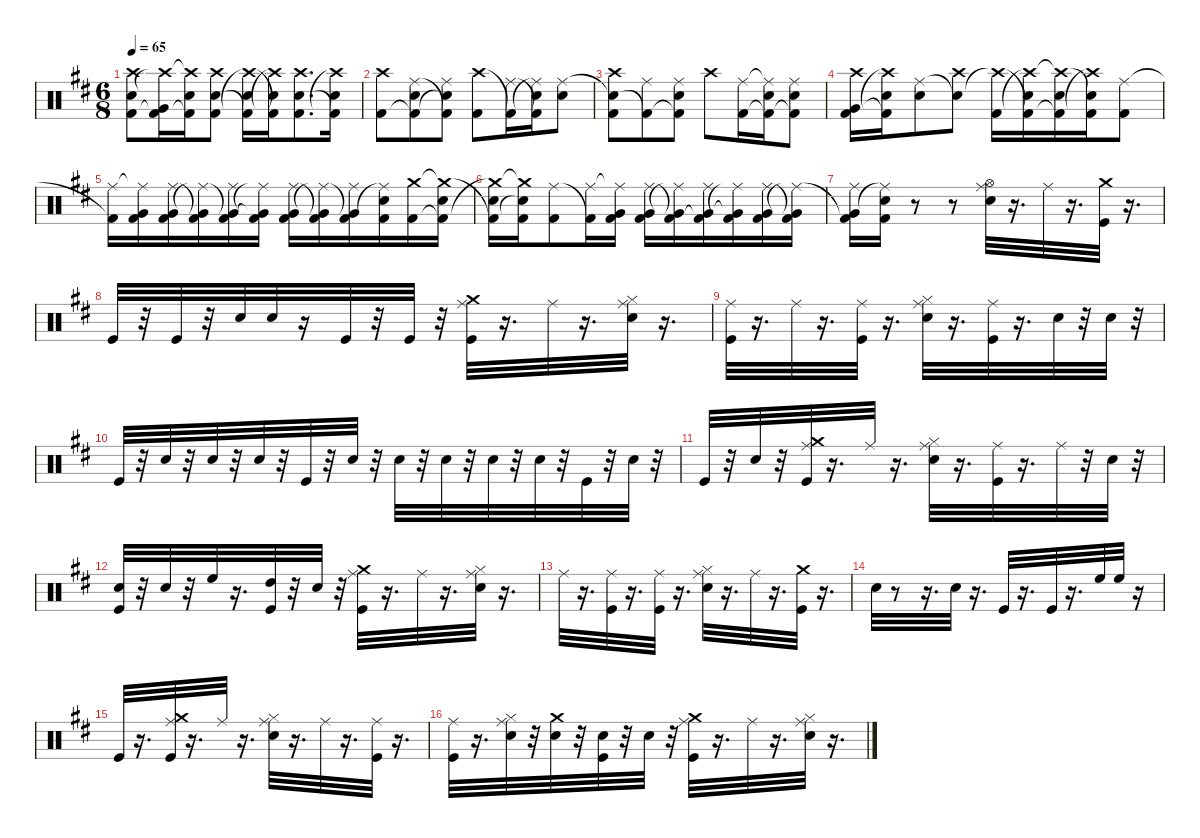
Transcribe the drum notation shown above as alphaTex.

\hideDynamics
\bracketExtendMode nobrackets
\singleTrackTrackNamePolicy hidden
\multiTrackTrackNamePolicy hidden
\firstSystemTrackNameMode fullname
\firstSystemTrackNameOrientation horizontal
\otherSystemsTrackNameOrientation horizontal
\track ("Drums" "drm.") {instrument percussion}
\staff {score}
\articulation defaults
\ts (6 8)
\tempo 65
\clef neutral
\ks bminor
("Snare (hit) 2"{acc forcenatural} "Kick (hit) 2"{acc forcenatural} "Crash high (hit)"{acc #}).8{dy ff beam Down} ("Crash high (hit)"{t acc #} "Kick (hit) 2"{t acc forcenatural} "Very Low Tom (hit)"{acc forcenatural}).16{beam Down} ("Crash high (hit)"{t acc #} "Kick (hit) 2"{t acc forcenatural} "Snare (hit) 2"{acc forcenatural}).16{beam Down} ("Snare (hit) 2"{acc forcenatural} "Kick (hit) 2"{acc forcenatural} "Crash high (hit)"{acc #}).8{beam Down} ("Kick (hit) 2"{t acc forcenatural} "Crash high (hit)"{t acc #} "Snare (hit) 2"{acc forcenatural}).16{beam Down} ("Crash high (hit)"{t acc #} "Kick (hit) 2"{t acc forcenatural} "Snare (hit) 2"{acc forcenatural}).16{beam Down} ("Snare (hit) 2"{acc forcenatural} "Kick (hit) 2"{acc forcenatural} "Crash high (hit)"{acc #}).8{d beam Down} ("Kick (hit) 2"{t acc forcenatural} "Crash high (hit)"{t acc #} "Snare (hit) 2"{acc forcenatural}).16{beam Down} |
("Crash high (hit)"{acc #} "Kick (hit) 2"{acc forcenatural}).8{beam Down} ("Ride (middle)"{acc #} "Kick (hit) 2"{t acc forcenatural} "Snare (hit) 2"{acc forcenatural}).8{beam Down} ("Kick (hit) 2"{t acc forcenatural} "Snare (hit) 2"{t acc forcenatural} "Ride (middle)"{acc #}).8{beam Down} ("Crash high (hit)"{acc #} "Kick (hit) 2"{acc forcenatural}).8{beam Down} ("Kick (hit) 2"{t acc forcenatural} "Ride (middle)"{acc #}).16{beam Down} ("Ride (middle)"{t acc #} "Kick (hit) 2"{t acc forcenatural} "Snare (hit) 2"{acc forcenatural}).16{beam Down} ("Ride (middle)"{acc #} "Snare (hit) 2"{acc forcenatural}).8{beam Down} |
("Snare (hit) 2"{t acc forcenatural} "Crash high (hit)"{acc #} "Kick (hit) 2"{acc forcenatural}).8{beam Down} ("Kick (hit) 2"{t acc forcenatural} "Ride (middle)"{acc #}).8{beam Down} ("Kick (hit) 2"{t acc forcenatural} "Snare (hit) 2"{acc forcenatural} "Ride (middle)"{acc #}).8{beam Down} "Crash high (hit)"{acc #}.8{beam Down} ("Ride (middle)"{acc #} "Kick (hit) 2"{acc forcenatural}).16{beam Down} ("Ride (middle)"{t acc #} "Kick (hit) 2"{t acc forcenatural} "Snare (hit) 2"{acc forcenatural}).16{beam Down} ("Snare (hit) 2"{acc forcenatural} "Kick (hit) 2"{t acc forcenatural} "Ride (middle)"{acc #}).8{beam Down} |
("Very Low Tom (hit)"{acc forcenatural} "Kick (hit) 2"{acc forcenatural} "Crash high (hit)"{acc #}).16{beam Down} ("Kick (hit) 2"{t acc forcenatural} "Crash high (hit)"{t acc #} "Snare (hit) 2"{acc forcenatural}).16{beam Down} ("Ride (middle)"{acc #} "Snare (hit) 2"{acc forcenatural}).8{beam Down} ("Snare (hit) 2"{t acc forcenatural} "Crash high (hit)"{acc #}).8{beam Down} ("Crash high (hit)"{t acc #} "Kick (hit) 2"{acc forcenatural}).16{beam Down} ("Kick (hit) 2"{t acc forcenatural} "Crash high (hit)"{t acc #} "Snare (hit) 2"{acc forcenatural}).16{beam Down} ("Kick (hit) 2"{t acc forcenatural} "Crash high (hit)"{t acc #} "Snare (hit) 2"{acc forcenatural}).16{beam Down} ("Crash high (hit)"{t acc #} "Snare (hit) 2"{t acc forcenatural} "Kick (hit) 2"{acc forcenatural}).16{beam Down} ("Ride (middle)"{acc #} "Kick (hit) 2"{acc forcenatural}).8{beam Down} |
("Kick (hit) 2"{t acc forcenatural} "Ride (middle)"{acc #}).16{beam Down} ("Kick (hit) 2"{acc forcenatural} "Ride (middle)"{t acc #} "Very Low Tom (hit)"{acc forcenatural}).16{beam Down} ("Very Low Tom (hit)"{acc forcenatural} "Ride (middle)"{acc #} "Kick (hit) 2"{acc forcenatural}).16{beam Down} ("Ride (middle)"{t acc #} "Kick (hit) 2"{t acc forcenatural} "Very Low Tom (hit)"{acc forcenatural}).16{beam Down} ("Kick (hit) 2"{t acc forcenatural} "Very Low Tom (hit)"{acc forcenatural} "Ride (middle)"{acc #}).16{beam Down} ("Very Low Tom (hit)"{t acc forcenatural} "Ride (middle)"{t acc #} "Kick (hit) 2"{acc forcenatural}).16{beam Down} ("Very Low Tom (hit)"{acc forcenatural} "Ride (middle)"{acc #} "Kick (hit) 2"{acc forcenatural}).16{beam Down} ("Ride (middle)"{t acc #} "Kick (hit) 2"{t acc forcenatural} "Very Low Tom (hit)"{acc forcenatural}).16{beam Down} ("Kick (hit) 2"{t acc forcenatural} "Very Low Tom (hit)"{acc forcenatural} "Ride (middle)"{acc #}).16{beam Down} ("Ride (middle)"{t acc #} "Kick (hit) 2"{acc forcenatural} "Snare (hit) 2"{acc forcenatural}).16{beam Down} ("Kick (hit) 2"{acc forcenatural} "Crash medium (hit)"{acc forcenatural}).16{beam Down} ("Kick (hit) 2"{t acc forcenatural} "Crash medium (hit)"{t acc forcenatural} "Snare (hit) 2"{acc forcenatural}).16{beam Down} |
("Crash medium (hit)"{t acc forcenatural} "Kick (hit) 2"{t acc forcenatural} "Snare (hit) 2"{acc forcenatural}).16{beam Down} ("Crash medium (hit)"{t acc forcenatural} "Snare (hit) 2"{t acc forcenatural} "Kick (hit) 2"{acc forcenatural}).16{beam Down} ("Ride (middle)"{acc #} "Kick (hit) 2"{acc forcenatural}).8{beam Down} ("Kick (hit) 2"{t acc forcenatural} "Ride (middle)"{acc #}).16{beam Down} ("Kick (hit) 2"{acc forcenatural} "Ride (middle)"{t acc #} "Very Low Tom (hit)"{acc forcenatural}).16{beam Down} ("Very Low Tom (hit)"{acc forcenatural} "Ride (middle)"{acc #} "Kick (hit) 2"{acc forcenatural}).16{beam Down} ("Ride (middle)"{t acc #} "Kick (hit) 2"{t acc forcenatural} "Very Low Tom (hit)"{acc forcenatural}).16{beam Down} ("Very Low Tom (hit)"{acc forcenatural} "Kick (hit) 2"{t acc forcenatural} "Ride (middle)"{acc #}).16{beam Down} ("Very Low Tom (hit)"{t acc forcenatural} "Ride (middle)"{t acc #} "Kick (hit) 2"{acc forcenatural}).16{beam Down} ("Very Low Tom (hit)"{acc forcenatural} "Ride (middle)"{acc #} "Kick (hit) 2"{acc forcenatural}).16{beam Down} ("Ride (middle)"{t acc #} "Kick (hit) 2"{t acc forcenatural} "Very Low Tom (hit)"{acc forcenatural}).16{beam Down} |
("Kick (hit) 2"{t acc forcenatural} "Very Low Tom (hit)"{acc forcenatural} "Ride (middle)"{acc #}).16{beam Down} ("Kick (hit) 2"{acc forcenatural} "Ride (middle)"{t acc #} "Snare (hit) 2"{acc forcenatural}).16{beam Down} r.8{beam Down} r.8{beam Down} ("Electric Snare (hit)"{acc forcenatural} "Hi-Hat (open)"{acc #} "Ride (middle)"{acc #}).32{dy fff beam Down} r.16{d beam Down} "Ride (middle)"{acc #}.32{dy f beam Down} r.16{d beam Down} ("Kick (hit)"{acc forcenatural} "Crash medium (hit)"{acc forcenatural}).32{beam Down} r.16{d beam Down} |
"Kick (hit)"{acc forcenatural}.32{beam Up} r.32{beam Up} "Kick (hit)"{acc forcenatural}.32{beam Up} r.32{beam Up} "Electric Snare (hit)"{acc forcenatural}.32{dy fff beam Down} "Electric Snare (hit)"{acc forcenatural}.32{dy f beam Down} r.16{beam Down} "Kick (hit)"{acc forcenatural}.32{beam Up} r.32{beam Up} "Kick (hit)"{acc forcenatural}.32{beam Up} r.32{beam Up} ("Crash medium (hit)"{acc forcenatural} "Kick (hit)"{acc forcenatural} "Ride (middle)"{acc #}).32{dy fff beam Down} r.16{d beam Down} "Ride (middle)"{acc #}.32{dy f beam Down} r.16{d beam Down} ("Electric Snare (hit)"{acc forcenatural} "Hi-Hat (closed)"{acc #} "Ride (middle)"{acc #}).32{dy fff beam Down} r.16{d beam Down} |
("Kick (hit)"{acc forcenatural} "Ride (middle)"{acc #}).32{beam Down} r.16{d beam Down} "Ride (middle)"{acc #}.32{dy f beam Down} r.16{d beam Down} ("Kick (hit)"{acc forcenatural} "Ride (middle)"{acc #}).32{beam Down} r.16{d beam Down} ("Electric Snare (hit)"{acc forcenatural} "Hi-Hat (closed)"{acc #} "Ride (middle)"{acc #}).32{dy fff beam Down} r.16{d beam Down} ("Kick (hit)"{acc forcenatural} "Ride (middle)"{acc #}).32{dy f beam Down} r.16{d beam Down} "Electric Snare (hit)"{acc forcenatural}.32{dy fff beam Down} r.32{beam Down} "Electric Snare (hit)"{acc forcenatural}.32{dy f beam Down} r.32{beam Down} |
"Kick (hit)"{acc forcenatural}.32{beam Up} r.32{beam Up} "Electric Snare (hit)"{acc forcenatural}.32{dy mf beam Down} r.32{beam Down} "Electric Snare (hit)"{acc forcenatural}.32{dy fff beam Down} r.32{beam Down} "Electric Snare (hit)"{acc forcenatural}.32{dy pp beam Down} r.32{beam Down} "Kick (hit)"{acc forcenatural}.32{dy f beam Up} r.32{beam Up} "Electric Snare (hit)"{acc forcenatural}.32{dy pp beam Down} r.32{beam Down} "Electric Snare (hit)"{acc forcenatural}.32{dy fff beam Down} r.32{beam Down} "Electric Snare (hit)"{acc forcenatural}.32{dy mp beam Down} r.32{beam Down} "Electric Snare (hit)"{acc forcenatural}.32{dy fff beam Down} r.32{beam Down} "Electric Snare (hit)"{acc forcenatural}.32{dy mp beam Down} r.32{beam Down} "Kick (hit)"{acc forcenatural}.32{dy f beam Up} r.32{beam Up} "Electric Snare (hit)"{acc forcenatural}.32{beam Down} r.32{beam Down} |
"Kick (hit)"{acc forcenatural}.32{beam Up} r.32{beam Up} "Electric Snare (hit)"{acc forcenatural}.32{dy mf beam Down} r.32{beam Down} ("Crash medium (hit)"{acc forcenatural} "Kick (hit)"{acc forcenatural} "Ride (middle)"{acc #}).32{dy fff beam Down} r.16{d beam Down} "Ride (middle)"{acc #}.32{dy f beam Down} r.16{d beam Down} ("Electric Snare (hit)"{acc forcenatural} "Hi-Hat (closed)"{acc #} "Ride (middle)"{acc #}).32{dy fff beam Down} r.16{d beam Down} ("Kick (hit)"{acc forcenatural} "Ride (middle)"{acc #}).32{beam Down} r.16{d beam Down} "Ride (middle)"{acc #}.32{beam Down} r.32{beam Down} "Electric Snare (hit)"{acc forcenatural}.32{dy pp beam Down} r.32{beam Down} |
("Kick (hit)"{acc forcenatural} "Electric Snare (hit)"{acc forcenatural}).32{dy f beam Up} r.32{beam Up} "Electric Snare (hit)"{acc forcenatural}.32{dy mf beam Down} r.32{beam Down} "High Floor Tom (hit)"{acc forcenatural}.32{dy fff beam Down} r.16{d beam Down} ("Kick (hit)"{acc forcenatural} "High Tom (hit)"{acc forcenatural}).32{dy f beam Up} r.32{beam Up} "Electric Snare (hit)"{acc forcenatural}.32{dy pp beam Down} r.32{beam Down} ("Crash medium (hit)"{acc forcenatural} "Kick (hit)"{acc forcenatural} "Ride (middle)"{acc #}).32{dy fff beam Down} r.16{d beam Down} "Ride (middle)"{acc #}.32{dy f beam Down} r.16{d beam Down} ("Electric Snare (hit)"{acc forcenatural} "Hi-Hat (closed)"{acc #} "Ride (middle)"{acc #}).32{dy fff beam Down} r.16{d beam Down} |
"Ride (middle)"{acc #}.32{beam Down} r.16{d beam Down} ("Kick (hit)"{acc forcenatural} "Ride (middle)"{acc #}).32{beam Down} r.16{d beam Down} ("Kick (hit)"{acc forcenatural} "Ride (middle)"{acc #}).32{dy f beam Down} r.16{d beam Down} ("Electric Snare (hit)"{acc forcenatural} "Hi-Hat (closed)"{acc #} "Ride (middle)"{acc #}).32{dy fff beam Down} r.16{d beam Down} "Ride (middle)"{acc #}.32{dy mp beam Down} r.16{d beam Down} ("Kick (hit)"{acc forcenatural} "Crash medium (hit)"{acc forcenatural}).32{dy f beam Down} r.16{d beam Down} |
"Electric Snare (hit)"{acc forcenatural}.32{dy fff beam Down} r.8{beam Down} r.16{d beam Down} "Electric Snare (hit)"{acc forcenatural}.32{dy f beam Down} r.16{d beam Down} "Kick (hit)"{acc forcenatural}.32{beam Up} r.16{d beam Up} "Kick (hit)"{acc forcenatural}.32{beam Up} r.16{d beam Up} "High Floor Tom (hit)"{acc forcenatural}.32{dy fff beam Down} "High Floor Tom (hit)"{acc forcenatural}.32{dy f beam Down} r.16{beam Down} |
"Kick (hit)"{acc forcenatural}.32{beam Up} r.16{d beam Up} ("Crash medium (hit)"{acc forcenatural} "Kick (hit)"{acc forcenatural} "Ride (middle)"{acc #}).32{dy fff beam Down} r.16{d beam Down} "Ride (middle)"{acc #}.32{dy f beam Down} r.16{d beam Down} ("Electric Snare (hit)"{acc forcenatural} "Hi-Hat (closed)"{acc #} "Ride (middle)"{acc #}).32{dy fff beam Down} r.16{d beam Down} "Ride (middle)"{acc #}.32{beam Down} r.16{d beam Down} ("Kick (hit)"{acc forcenatural} "Ride (middle)"{acc #}).32{beam Down} r.16{d beam Down} |
("Kick (hit)"{acc forcenatural} "Ride (middle)"{acc #}).32{dy f beam Down} r.16{d beam Down} ("Electric Snare (hit)"{acc forcenatural} "Hi-Hat (closed)"{acc #} "Ride (middle)"{acc #}).32{dy fff beam Down} r.32{beam Down} ("Electric Snare (hit)"{acc forcenatural} "Crash medium (hit)"{acc forcenatural}).32{dy mf beam Down} r.32{beam Down} ("Kick (hit)"{acc forcenatural} "Electric Snare (hit)"{acc forcenatural}).32{dy f beam Up} r.32{beam Up} "Electric Snare (hit)"{acc forcenatural}.32{dy p beam Down} r.32{beam Down} ("Crash medium (hit)"{acc forcenatural} "Kick (hit)"{acc forcenatural} "Ride (middle)"{acc #}).32{dy fff beam Down} r.16{d beam Down} "Ride (middle)"{acc #}.32{dy f beam Down} r.16{d beam Down} ("Electric Snare (hit)"{acc forcenatural} "Hi-Hat (closed)"{acc #} "Ride (middle)"{acc #}).32{dy fff beam Down} r.16{d beam Down}
